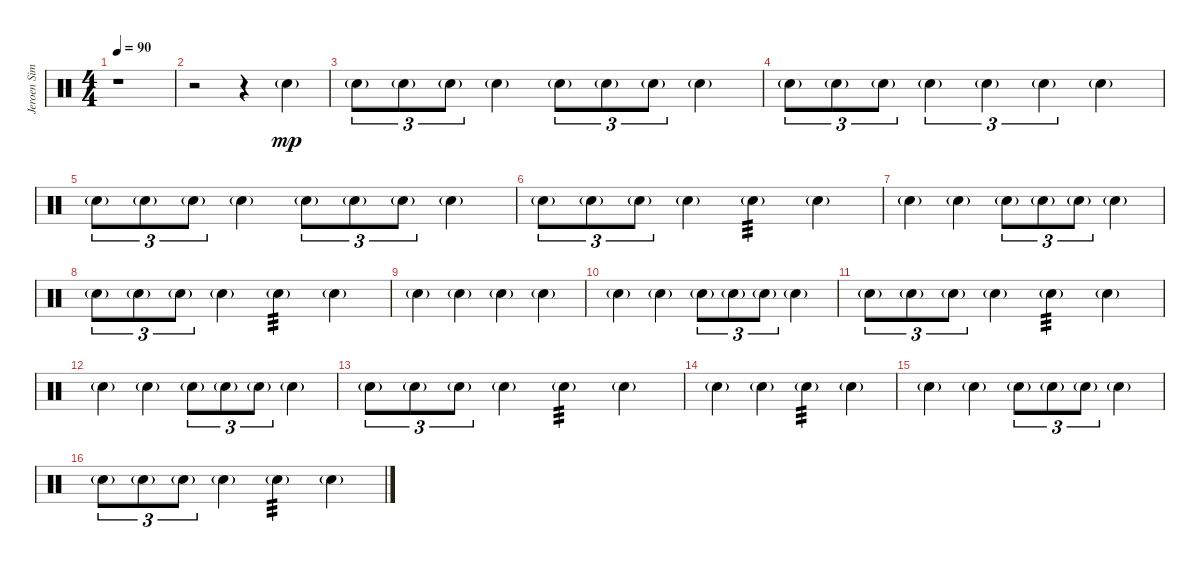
\track ("Jeroen Simons" "Jeroen Sim") {instrument percussion}
\staff {score}
\articulation defaults
\ts (4 4)
\tempo 90
\clef neutral
\ks c
r.1{dy mp volume 9} |
r.2 r.4 "Snare (hit) 2"{g}.4 |
"Snare (hit) 2"{g}.8{tu (3 2)} "Snare (hit) 2"{g}.8{tu (3 2)} "Snare (hit) 2"{g}.8{tu (3 2)} "Snare (hit) 2"{g}.4 "Snare (hit) 2"{g}.8{tu (3 2)} "Snare (hit) 2"{g}.8{tu (3 2)} "Snare (hit) 2"{g}.8{tu (3 2)} "Snare (hit) 2"{g}.4 |
"Snare (hit) 2"{g}.8{tu (3 2)} "Snare (hit) 2"{g}.8{tu (3 2)} "Snare (hit) 2"{g}.8{tu (3 2)} "Snare (hit) 2"{g}.4{tu (3 2)} "Snare (hit) 2"{g}.4{tu (3 2)} "Snare (hit) 2"{g}.4{tu (3 2)} "Snare (hit) 2"{g}.4 |
"Snare (hit) 2"{g}.8{tu (3 2)} "Snare (hit) 2"{g}.8{tu (3 2)} "Snare (hit) 2"{g}.8{tu (3 2)} "Snare (hit) 2"{g}.4 "Snare (hit) 2"{g}.8{tu (3 2)} "Snare (hit) 2"{g}.8{tu (3 2)} "Snare (hit) 2"{g}.8{tu (3 2)} "Snare (hit) 2"{g}.4 |
"Snare (hit) 2"{g}.8{tu (3 2)} "Snare (hit) 2"{g}.8{tu (3 2)} "Snare (hit) 2"{g}.8{tu (3 2)} "Snare (hit) 2"{g}.4 "Snare (hit) 2"{g}.4{tp 3} "Snare (hit) 2"{g}.4 |
"Snare (hit) 2"{g}.4 "Snare (hit) 2"{g}.4 "Snare (hit) 2"{g}.8{tu (3 2)} "Snare (hit) 2"{g}.8{tu (3 2)} "Snare (hit) 2"{g}.8{tu (3 2)} "Snare (hit) 2"{g}.4 |
"Snare (hit) 2"{g}.8{tu (3 2)} "Snare (hit) 2"{g}.8{tu (3 2)} "Snare (hit) 2"{g}.8{tu (3 2)} "Snare (hit) 2"{g}.4 "Snare (hit) 2"{g}.4{tp 3} "Snare (hit) 2"{g}.4 |
"Snare (hit) 2"{g}.4 "Snare (hit) 2"{g}.4 "Snare (hit) 2"{g}.4 "Snare (hit) 2"{g}.4 |
"Snare (hit) 2"{g}.4 "Snare (hit) 2"{g}.4 "Snare (hit) 2"{g}.8{tu (3 2)} "Snare (hit) 2"{g}.8{tu (3 2)} "Snare (hit) 2"{g}.8{tu (3 2)} "Snare (hit) 2"{g}.4 |
"Snare (hit) 2"{g}.8{tu (3 2)} "Snare (hit) 2"{g}.8{tu (3 2)} "Snare (hit) 2"{g}.8{tu (3 2)} "Snare (hit) 2"{g}.4 "Snare (hit) 2"{g}.4{tp 3} "Snare (hit) 2"{g}.4 |
"Snare (hit) 2"{g}.4 "Snare (hit) 2"{g}.4 "Snare (hit) 2"{g}.8{tu (3 2)} "Snare (hit) 2"{g}.8{tu (3 2)} "Snare (hit) 2"{g}.8{tu (3 2)} "Snare (hit) 2"{g}.4 |
"Snare (hit) 2"{g}.8{tu (3 2)} "Snare (hit) 2"{g}.8{tu (3 2)} "Snare (hit) 2"{g}.8{tu (3 2)} "Snare (hit) 2"{g}.4 "Snare (hit) 2"{g}.4{tp 3} "Snare (hit) 2"{g}.4 |
"Snare (hit) 2"{g}.4 "Snare (hit) 2"{g}.4 "Snare (hit) 2"{g}.4{tp 3} "Snare (hit) 2"{g}.4 |
"Snare (hit) 2"{g}.4 "Snare (hit) 2"{g}.4 "Snare (hit) 2"{g}.8{tu (3 2)} "Snare (hit) 2"{g}.8{tu (3 2)} "Snare (hit) 2"{g}.8{tu (3 2)} "Snare (hit) 2"{g}.4 |
"Snare (hit) 2"{g}.8{tu (3 2)} "Snare (hit) 2"{g}.8{tu (3 2)} "Snare (hit) 2"{g}.8{tu (3 2)} "Snare (hit) 2"{g}.4 "Snare (hit) 2"{g}.4{tp 3} "Snare (hit) 2"{g}.4
